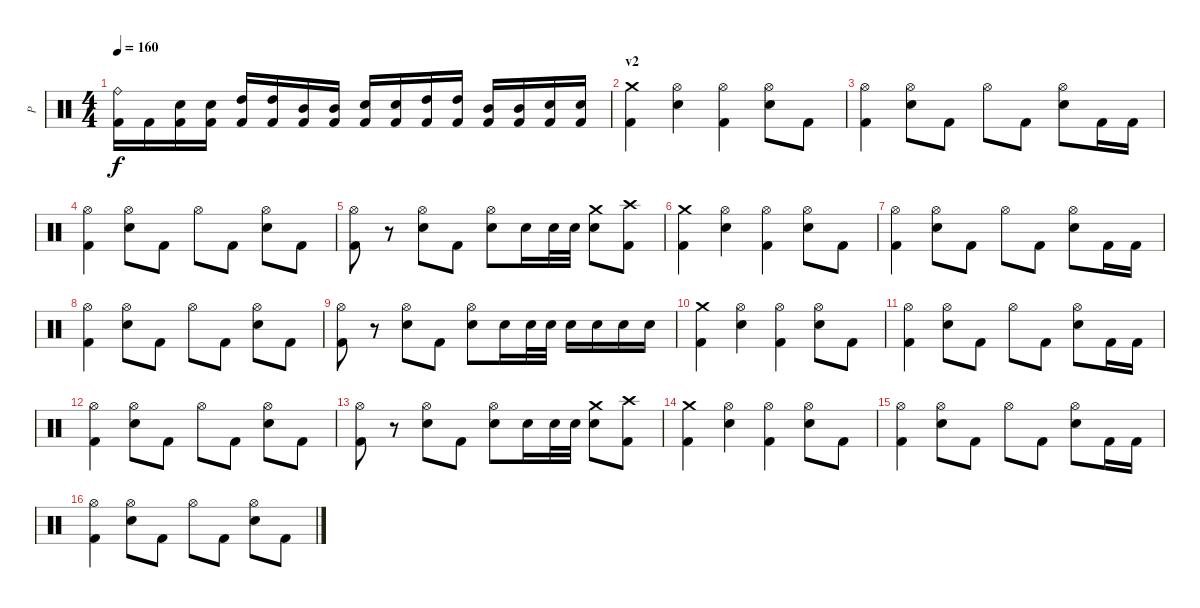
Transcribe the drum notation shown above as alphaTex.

\track ("P" "P") {instrument percussion}
\staff {score}
\articulation defaults
\ts (4 4)
\tempo 160
\clef neutral
\ks c
("Ride (bell)" "Kick (hit) 2").16{dy f} "Kick (hit) 2".16 ("Electric Snare (hit)" "Kick (hit) 2").16 ("Electric Snare (hit)" "Kick (hit) 2").16 ("High Tom (hit)" "Kick (hit) 2").16 ("High Tom (hit)" "Kick (hit) 2").16 ("Mid Tom (hit)" "Kick (hit) 2").16 ("Mid Tom (hit)" "Kick (hit) 2").16 ("Electric Snare (hit)" "Kick (hit) 2").16 ("Electric Snare (hit)" "Kick (hit) 2").16 ("High Tom (hit)" "Kick (hit) 2").16 ("High Tom (hit)" "Kick (hit) 2").16 ("Mid Tom (hit)" "Kick (hit) 2").16 ("Mid Tom (hit)" "Kick (hit) 2").16 ("Electric Snare (hit)" "Kick (hit) 2").16 ("Electric Snare (hit)" "Kick (hit) 2").16 |
\section ("" "v2")
("Crash medium (hit)" "Kick (hit) 2").4 ("Hi-Hat (open)" "Electric Snare (hit)").4 ("Hi-Hat (open)" "Kick (hit) 2").4 ("Hi-Hat (open)" "Electric Snare (hit)").8 "Kick (hit) 2".8 |
("Hi-Hat (open)" "Kick (hit) 2").4 ("Hi-Hat (open)" "Electric Snare (hit)").8 "Kick (hit) 2".8 "Hi-Hat (open)".8 "Kick (hit) 2".8 ("Hi-Hat (open)" "Electric Snare (hit)").8 "Kick (hit) 2".16 "Kick (hit) 2".16 |
("Hi-Hat (open)" "Kick (hit) 2").4 ("Hi-Hat (open)" "Electric Snare (hit)").8 "Kick (hit) 2".8 "Hi-Hat (open)".8 "Kick (hit) 2".8 ("Hi-Hat (open)" "Electric Snare (hit)").8 "Kick (hit) 2".8 |
("Hi-Hat (open)" "Kick (hit) 2").8 r.8 ("Hi-Hat (open)" "Electric Snare (hit)").8 "Kick (hit) 2".8 ("Hi-Hat (open)" "Electric Snare (hit)").8 "Electric Snare (hit)".16 "Electric Snare (hit)".32 "Electric Snare (hit)".32 ("Crash medium (hit)" "Electric Snare (hit)").8 ("Crash high (hit)" "Kick (hit) 2").8 |
("Crash medium (hit)" "Kick (hit) 2").4 ("Hi-Hat (open)" "Electric Snare (hit)").4 ("Hi-Hat (open)" "Kick (hit) 2").4 ("Hi-Hat (open)" "Electric Snare (hit)").8 "Kick (hit) 2".8 |
("Hi-Hat (open)" "Kick (hit) 2").4 ("Hi-Hat (open)" "Electric Snare (hit)").8 "Kick (hit) 2".8 "Hi-Hat (open)".8 "Kick (hit) 2".8 ("Hi-Hat (open)" "Electric Snare (hit)").8 "Kick (hit) 2".16 "Kick (hit) 2".16 |
("Hi-Hat (open)" "Kick (hit) 2").4 ("Hi-Hat (open)" "Electric Snare (hit)").8 "Kick (hit) 2".8 "Hi-Hat (open)".8 "Kick (hit) 2".8 ("Hi-Hat (open)" "Electric Snare (hit)").8 "Kick (hit) 2".8 |
("Hi-Hat (open)" "Kick (hit) 2").8 r.8 ("Hi-Hat (open)" "Electric Snare (hit)").8 "Kick (hit) 2".8 ("Hi-Hat (open)" "Electric Snare (hit)").8 "Electric Snare (hit)".16 "Electric Snare (hit)".32 "Electric Snare (hit)".32 "Electric Snare (hit)".16 "Electric Snare (hit)".16 "Electric Snare (hit)".16 "Electric Snare (hit)".16 |
("Crash medium (hit)" "Kick (hit) 2").4 ("Hi-Hat (open)" "Electric Snare (hit)").4 ("Hi-Hat (open)" "Kick (hit) 2").4 ("Hi-Hat (open)" "Electric Snare (hit)").8 "Kick (hit) 2".8 |
("Hi-Hat (open)" "Kick (hit) 2").4 ("Hi-Hat (open)" "Electric Snare (hit)").8 "Kick (hit) 2".8 "Hi-Hat (open)".8 "Kick (hit) 2".8 ("Hi-Hat (open)" "Electric Snare (hit)").8 "Kick (hit) 2".16 "Kick (hit) 2".16 |
("Hi-Hat (open)" "Kick (hit) 2").4 ("Hi-Hat (open)" "Electric Snare (hit)").8 "Kick (hit) 2".8 "Hi-Hat (open)".8 "Kick (hit) 2".8 ("Hi-Hat (open)" "Electric Snare (hit)").8 "Kick (hit) 2".8 |
("Hi-Hat (open)" "Kick (hit) 2").8 r.8 ("Hi-Hat (open)" "Electric Snare (hit)").8 "Kick (hit) 2".8 ("Hi-Hat (open)" "Electric Snare (hit)").8 "Electric Snare (hit)".16 "Electric Snare (hit)".32 "Electric Snare (hit)".32 ("Crash medium (hit)" "Electric Snare (hit)").8 ("Crash high (hit)" "Kick (hit) 2").8 |
("Crash medium (hit)" "Kick (hit) 2").4 ("Hi-Hat (open)" "Electric Snare (hit)").4 ("Hi-Hat (open)" "Kick (hit) 2").4 ("Hi-Hat (open)" "Electric Snare (hit)").8 "Kick (hit) 2".8 |
("Hi-Hat (open)" "Kick (hit) 2").4 ("Hi-Hat (open)" "Electric Snare (hit)").8 "Kick (hit) 2".8 "Hi-Hat (open)".8 "Kick (hit) 2".8 ("Hi-Hat (open)" "Electric Snare (hit)").8 "Kick (hit) 2".16 "Kick (hit) 2".16 |
("Hi-Hat (open)" "Kick (hit) 2").4 ("Hi-Hat (open)" "Electric Snare (hit)").8 "Kick (hit) 2".8 "Hi-Hat (open)".8 "Kick (hit) 2".8 ("Hi-Hat (open)" "Electric Snare (hit)").8 "Kick (hit) 2".8
